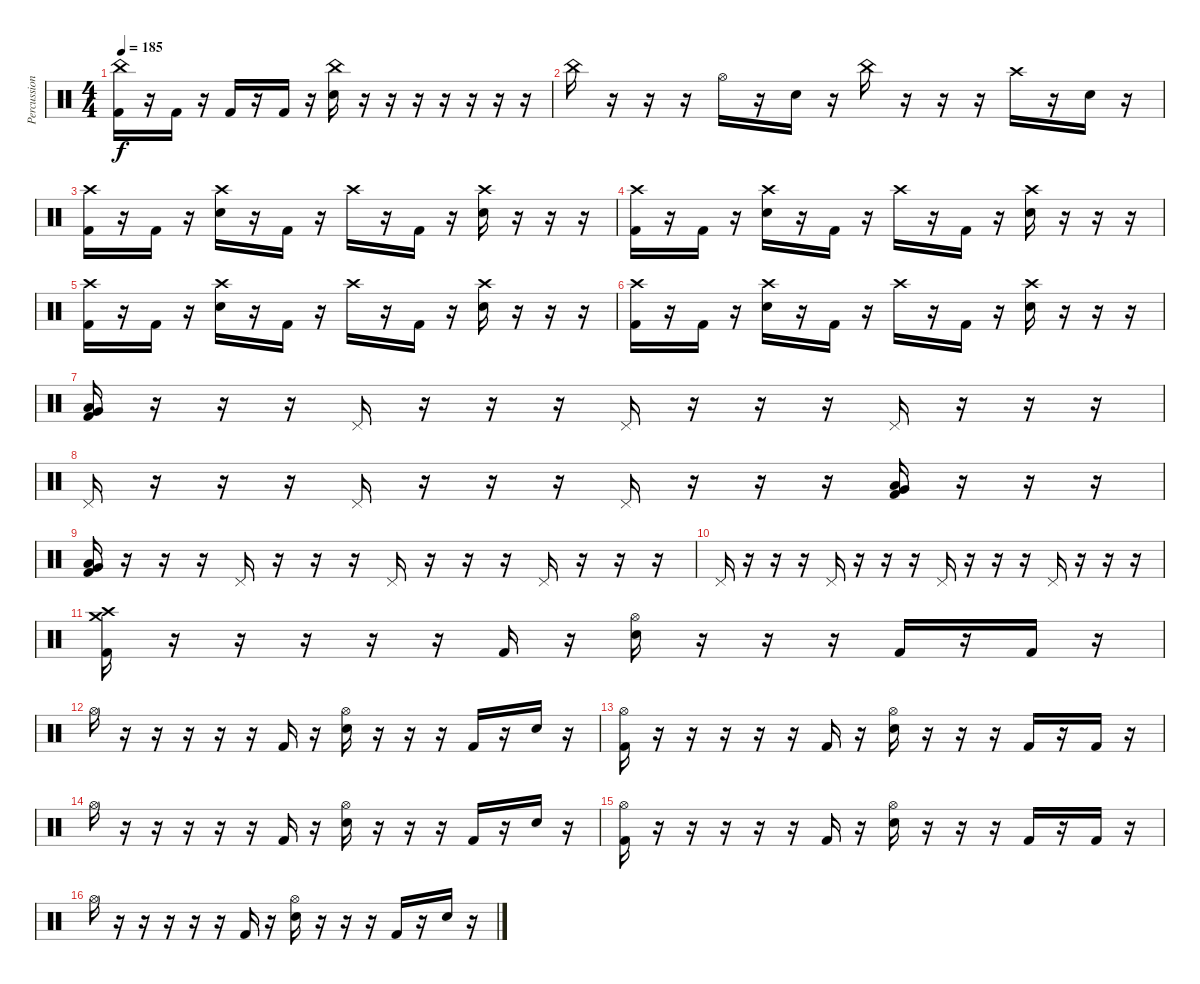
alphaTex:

\track ("Percussion" "Percussion") {instrument percussion}
\staff {score}
\articulation defaults
\ts (4 4)
\tempo 185
\clef neutral
\ks c
("China (hit)" "Kick (hit) 2").16{dy f} r.16 "Kick (hit) 2".16 r.16 "Kick (hit) 2".16 r.16 "Kick (hit) 2".16 r.16 ("China (hit)" "Electric Snare (hit)").16 r.16 r.16 r.16 r.16 r.16 r.16 r.16 |
"China (hit)".16 r.16 r.16 r.16 "Hi-Hat (open)".16 r.16 "Electric Snare (hit)".16 r.16 "China (hit)".16 r.16 r.16 r.16 "Crash high (hit)".16 r.16 "Electric Snare (hit)".16 r.16 |
("Crash high (hit)" "Kick (hit) 2").16 r.16 "Kick (hit) 2".16 r.16 ("Crash high (hit)" "Electric Snare (hit)").16 r.16 "Kick (hit) 2".16 r.16 "Crash high (hit)".16 r.16 "Kick (hit) 2".16 r.16 ("Crash high (hit)" "Electric Snare (hit)").16 r.16 r.16 r.16 |
("Crash high (hit)" "Kick (hit) 2").16 r.16 "Kick (hit) 2".16 r.16 ("Crash high (hit)" "Electric Snare (hit)").16 r.16 "Kick (hit) 2".16 r.16 "Crash high (hit)".16 r.16 "Kick (hit) 2".16 r.16 ("Crash high (hit)" "Electric Snare (hit)").16 r.16 r.16 r.16 |
("Crash high (hit)" "Kick (hit) 2").16 r.16 "Kick (hit) 2".16 r.16 ("Crash high (hit)" "Electric Snare (hit)").16 r.16 "Kick (hit) 2".16 r.16 "Crash high (hit)".16 r.16 "Kick (hit) 2".16 r.16 ("Crash high (hit)" "Electric Snare (hit)").16 r.16 r.16 r.16 |
("Crash high (hit)" "Kick (hit) 2").16 r.16 "Kick (hit) 2".16 r.16 ("Crash high (hit)" "Electric Snare (hit)").16 r.16 "Kick (hit) 2".16 r.16 "Crash high (hit)".16 r.16 "Kick (hit) 2".16 r.16 ("Crash high (hit)" "Electric Snare (hit)").16 r.16 r.16 r.16 |
("Very Low Tom (hit)" "Low Floor Tom (hit)" "Kick (hit) 2").16 r.16 r.16 r.16 "Pedal Hi-Hat (hit)".16 r.16 r.16 r.16 "Pedal Hi-Hat (hit)".16 r.16 r.16 r.16 "Pedal Hi-Hat (hit)".16 r.16 r.16 r.16 |
"Pedal Hi-Hat (hit)".16 r.16 r.16 r.16 "Pedal Hi-Hat (hit)".16 r.16 r.16 r.16 "Pedal Hi-Hat (hit)".16 r.16 r.16 r.16 ("Very Low Tom (hit)" "Low Floor Tom (hit)" "Kick (hit) 2").16 r.16 r.16 r.16 |
("Very Low Tom (hit)" "Low Floor Tom (hit)" "Kick (hit) 2").16 r.16 r.16 r.16 "Pedal Hi-Hat (hit)".16 r.16 r.16 r.16 "Pedal Hi-Hat (hit)".16 r.16 r.16 r.16 "Pedal Hi-Hat (hit)".16 r.16 r.16 r.16 |
"Pedal Hi-Hat (hit)".16 r.16 r.16 r.16 "Pedal Hi-Hat (hit)".16 r.16 r.16 r.16 "Pedal Hi-Hat (hit)".16 r.16 r.16 r.16 "Pedal Hi-Hat (hit)".16 r.16 r.16 r.16 |
("Crash high (hit)" "Crash medium (hit)" "Kick (hit) 2").16 r.16 r.16 r.16 r.16 r.16 "Kick (hit) 2".16 r.16 ("Hi-Hat (open)" "Electric Snare (hit)").16 r.16 r.16 r.16 "Kick (hit) 2".16 r.16 "Kick (hit) 2".16 r.16 |
"Hi-Hat (open)".16 r.16 r.16 r.16 r.16 r.16 "Kick (hit) 2".16 r.16 ("Hi-Hat (open)" "Electric Snare (hit)").16 r.16 r.16 r.16 "Kick (hit) 2".16 r.16 "Electric Snare (hit)".16 r.16 |
("Hi-Hat (open)" "Kick (hit) 2").16 r.16 r.16 r.16 r.16 r.16 "Kick (hit) 2".16 r.16 ("Hi-Hat (open)" "Electric Snare (hit)").16 r.16 r.16 r.16 "Kick (hit) 2".16 r.16 "Kick (hit) 2".16 r.16 |
"Hi-Hat (open)".16 r.16 r.16 r.16 r.16 r.16 "Kick (hit) 2".16 r.16 ("Hi-Hat (open)" "Electric Snare (hit)").16 r.16 r.16 r.16 "Kick (hit) 2".16 r.16 "Electric Snare (hit)".16 r.16 |
("Hi-Hat (open)" "Kick (hit) 2").16 r.16 r.16 r.16 r.16 r.16 "Kick (hit) 2".16 r.16 ("Hi-Hat (open)" "Electric Snare (hit)").16 r.16 r.16 r.16 "Kick (hit) 2".16 r.16 "Kick (hit) 2".16 r.16 |
"Hi-Hat (open)".16 r.16 r.16 r.16 r.16 r.16 "Kick (hit) 2".16 r.16 ("Hi-Hat (open)" "Electric Snare (hit)").16 r.16 r.16 r.16 "Kick (hit) 2".16 r.16 "Electric Snare (hit)".16 r.16
